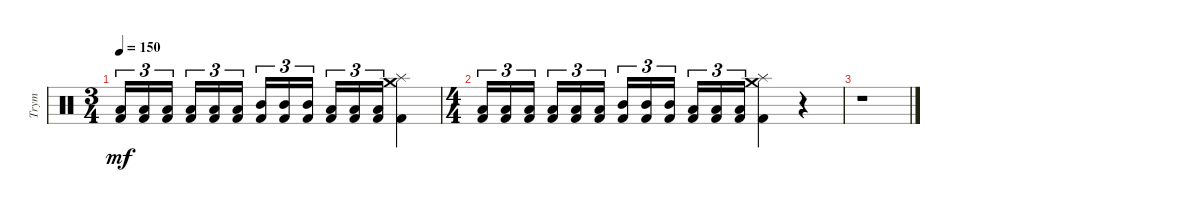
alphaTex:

\track ("Trym" "Trym") {instrument percussion}
\staff {score}
\articulation defaults
\ts (3 4)
\tempo 150
\clef neutral
\ks c
("Low Floor Tom (hit)" "Kick (hit) 2").16{tu (3 2) dy mf} ("Low Floor Tom (hit)" "Kick (hit) 2").16{tu (3 2)} ("Low Floor Tom (hit)" "Kick (hit) 2").16{tu (3 2) beam splitsecondary} ("Low Tom (hit)" "Kick (hit) 2").16{tu (3 2)} ("Low Tom (hit)" "Kick (hit) 2").16{tu (3 2)} ("Low Tom (hit)" "Kick (hit) 2").16{tu (3 2)} ("Mid Tom (hit)" "Kick (hit) 2").16{tu (3 2)} ("Mid Tom (hit)" "Kick (hit) 2").16{tu (3 2)} ("Mid Tom (hit)" "Kick (hit) 2").16{tu (3 2) beam splitsecondary} ("Low Tom (hit)" "Kick (hit) 2").16{tu (3 2)} ("Low Tom (hit)" "Kick (hit) 2").16{tu (3 2)} ("Low Tom (hit)" "Kick (hit) 2").16{tu (3 2)} ("Crash medium (hit)" "Splash (hit)" "Kick (hit) 2").4 |
\ts (4 4)
("Low Floor Tom (hit)" "Kick (hit) 2").16{tu (3 2)} ("Low Floor Tom (hit)" "Kick (hit) 2").16{tu (3 2)} ("Low Floor Tom (hit)" "Kick (hit) 2").16{tu (3 2) beam splitsecondary} ("Low Tom (hit)" "Kick (hit) 2").16{tu (3 2)} ("Low Tom (hit)" "Kick (hit) 2").16{tu (3 2)} ("Low Tom (hit)" "Kick (hit) 2").16{tu (3 2)} ("Mid Tom (hit)" "Kick (hit) 2").16{tu (3 2)} ("Mid Tom (hit)" "Kick (hit) 2").16{tu (3 2)} ("Mid Tom (hit)" "Kick (hit) 2").16{tu (3 2) beam splitsecondary} ("Low Tom (hit)" "Kick (hit) 2").16{tu (3 2)} ("Low Tom (hit)" "Kick (hit) 2").16{tu (3 2)} ("Low Tom (hit)" "Kick (hit) 2").16{tu (3 2)} ("Crash medium (hit)" "Splash (hit)" "Kick (hit) 2").4 r.4 |
r.1
